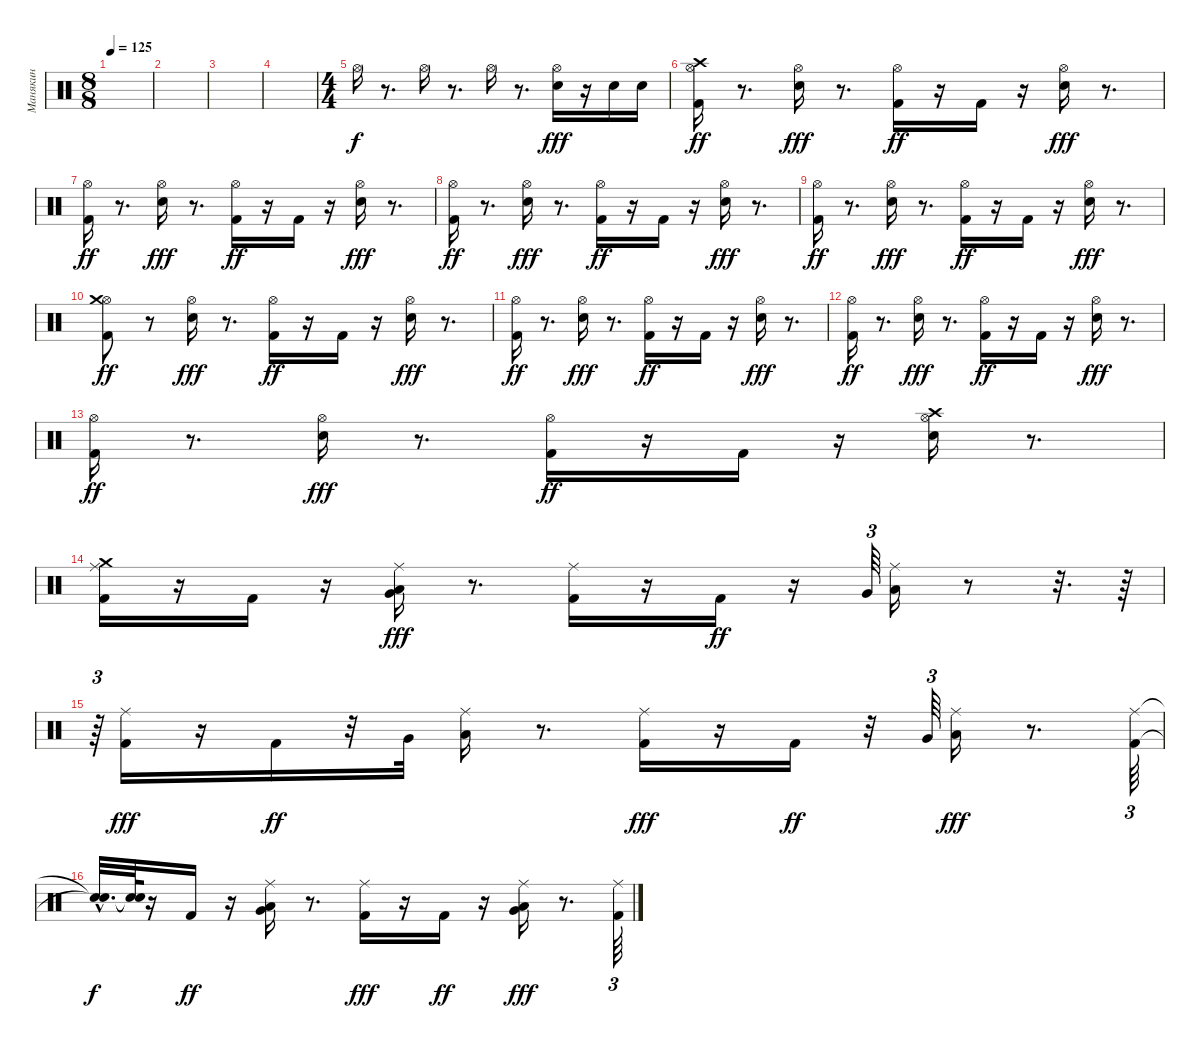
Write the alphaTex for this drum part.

\track ("Манякин" "Манякин") {instrument percussion}
\staff {score}
\articulation defaults
\ts (8 8)
\tempo 125
\clef neutral
\ks c
|
|
|
|
\ts (4 4)
"Hi-Hat (open)".16{dy f} r.8{d} "Hi-Hat (open)".16 r.8{d} "Hi-Hat (open)".16 r.8{d} ("Snare (hit) 2" "Hi-Hat (open)").16{dy fff} r.16 "Snare (hit) 2".16 "Snare (hit) 2".16 |
("Kick (hit) 2" "Hi-Hat (open)" "Crash high (hit)").16{dy ff} r.8{d} ("Snare (hit) 2" "Hi-Hat (open)").16{dy fff} r.8{d} ("Kick (hit) 2" "Hi-Hat (open)").16{dy ff} r.16 "Kick (hit) 2".16 r.16 ("Snare (hit) 2" "Hi-Hat (open)").16{dy fff} r.8{d} |
("Kick (hit) 2" "Hi-Hat (open)").16{dy ff} r.8{d} ("Snare (hit) 2" "Hi-Hat (open)").16{dy fff} r.8{d} ("Kick (hit) 2" "Hi-Hat (open)").16{dy ff} r.16 "Kick (hit) 2".16 r.16 ("Snare (hit) 2" "Hi-Hat (open)").16{dy fff} r.8{d} |
("Kick (hit) 2" "Hi-Hat (open)").16{dy ff} r.8{d} ("Snare (hit) 2" "Hi-Hat (open)").16{dy fff} r.8{d} ("Kick (hit) 2" "Hi-Hat (open)").16{dy ff} r.16 "Kick (hit) 2".16 r.16 ("Snare (hit) 2" "Hi-Hat (open)").16{dy fff} r.8{d} |
("Kick (hit) 2" "Hi-Hat (open)").16{dy ff} r.8{d} ("Snare (hit) 2" "Hi-Hat (open)").16{dy fff} r.8{d} ("Kick (hit) 2" "Hi-Hat (open)").16{dy ff} r.16 "Kick (hit) 2".16 r.16 ("Snare (hit) 2" "Hi-Hat (open)").16{dy fff} r.8{d} |
("Kick (hit) 2" "Hi-Hat (open)" "Crash medium (hit)").8{dy ff} r.8 ("Snare (hit) 2" "Hi-Hat (open)").16{dy fff} r.8{d} ("Kick (hit) 2" "Hi-Hat (open)").16{dy ff} r.16 "Kick (hit) 2".16 r.16 ("Snare (hit) 2" "Hi-Hat (open)").16{dy fff} r.8{d} |
("Kick (hit) 2" "Hi-Hat (open)").16{dy ff} r.8{d} ("Snare (hit) 2" "Hi-Hat (open)").16{dy fff} r.8{d} ("Kick (hit) 2" "Hi-Hat (open)").16{dy ff} r.16 "Kick (hit) 2".16 r.16 ("Snare (hit) 2" "Hi-Hat (open)").16{dy fff} r.8{d} |
("Kick (hit) 2" "Hi-Hat (open)").16{dy ff} r.8{d} ("Snare (hit) 2" "Hi-Hat (open)").16{dy fff} r.8{d} ("Kick (hit) 2" "Hi-Hat (open)").16{dy ff} r.16 "Kick (hit) 2".16 r.16 ("Snare (hit) 2" "Hi-Hat (open)").16{dy fff} r.8{d} |
("Kick (hit) 2" "Hi-Hat (open)").16{dy ff} r.8{d} ("Snare (hit) 2" "Hi-Hat (open)").16{dy fff} r.8{d} ("Kick (hit) 2" "Hi-Hat (open)").16{dy ff} r.16 "Kick (hit) 2".16 r.16 ("Snare (hit) 2" "Hi-Hat (open)" "Crash high (hit)").16 r.8{d} |
("Kick (hit) 2" "Ride (middle)" "Crash medium (hit)").16 r.16 "Kick (hit) 2".16 r.16 ("Very Low Tom (hit)" "Low Tom (hit)" "Ride (middle)").16{dy fff} r.8{d} ("Kick (hit) 2" "Ride (middle)").16 r.16 "Kick (hit) 2".16{dy ff} r.16 "Very Low Tom (hit)".64{tu (3 2)} ("Ride (middle)" "Low Tom (hit)").16 r.8 r.32{d} r.64 |
r.64{tu (3 2)} ("Kick (hit) 2" "Ride (middle)").16{dy fff} r.16 "Kick (hit) 2".16{dy ff} r.32 "Very Low Tom (hit)".32 ("Ride (middle)" "Low Tom (hit)").16 r.8{d} ("Kick (hit) 2" "Ride (middle)").16{dy fff} r.16 "Kick (hit) 2".16{dy ff} r.32 "Very Low Tom (hit)".64{tu (3 2)} ("Low Tom (hit)" "Ride (middle)").16{dy fff} r.8{d} ("Kick (hit) 2" "Ride (middle)").64{tu (3 2)} |
("Snare (hit)"{hac t} "Snare (hit)"{hac t}).32{d dy f} ("Snare (hit)"{t} "Snare (hit)"{t}).64 r.16 "Kick (hit) 2".16{dy ff} r.16 ("Very Low Tom (hit)" "Ride (middle)" "Low Tom (hit)").16 r.8{d} ("Kick (hit) 2" "Ride (middle)").16{dy fff} r.16 "Kick (hit) 2".16{dy ff} r.16 ("Very Low Tom (hit)" "Low Tom (hit)" "Ride (middle)").16{dy fff} r.8{d} ("Kick (hit) 2" "Ride (middle)").64{tu (3 2)}
